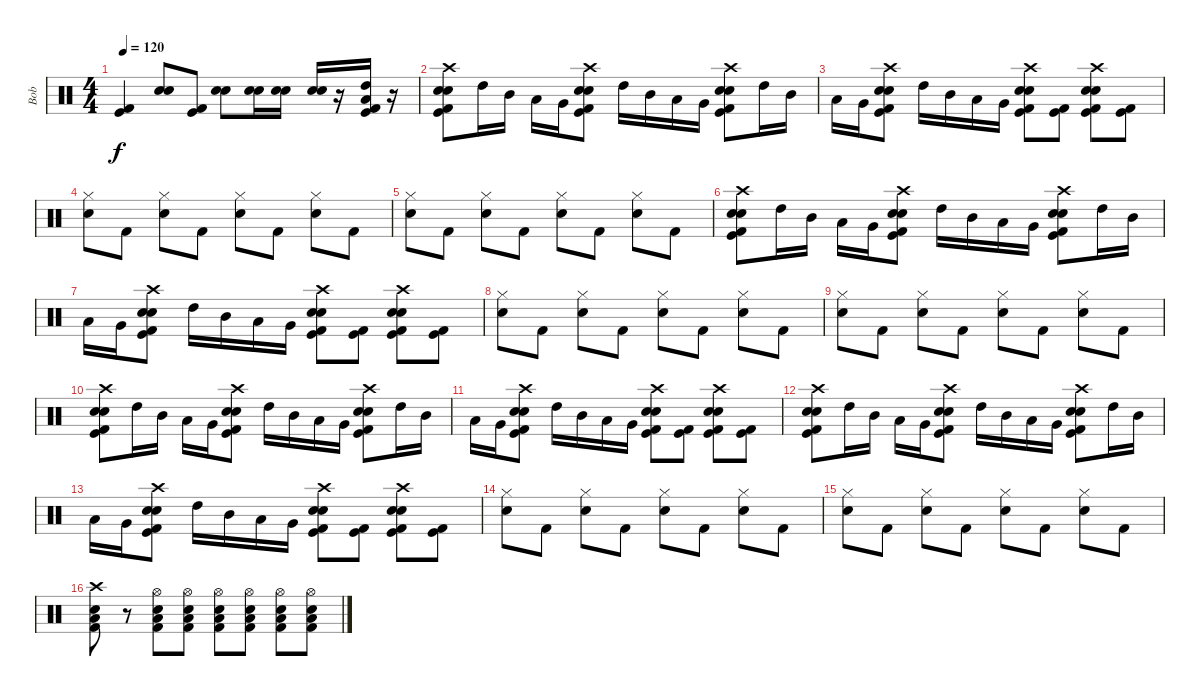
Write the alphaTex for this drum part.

\track ("Bob" "Bob") {instrument percussion}
\staff {score}
\articulation defaults
\ts (4 4)
\tempo 120
\clef neutral
\ks c
("Kick (hit)" "Kick (hit) 2").4{dy f} ("Electric Snare (hit)" "Snare (hit) 2").8 ("Kick (hit)" "Kick (hit) 2").8 ("Snare (hit) 2" "Snare (hit) 2").8 ("Electric Snare (hit)" "Snare (hit) 2").16 ("Electric Snare (hit)" "Snare (hit) 2").16 ("Electric Snare (hit)" "Snare (hit) 2").16 r.16 ("High Tom (hit)" "Low Tom (hit)" "Kick (hit)" "Kick (hit) 2").16 r.16 |
("Crash high (hit)" "Electric Snare (hit)" "Snare (hit) 2" "Kick (hit)" "Kick (hit) 2").8 "High Tom (hit)".16 "Mid Tom (hit)".16 "Low Tom (hit)".16 "Very Low Tom (hit)".16 ("Crash high (hit)" "Electric Snare (hit)" "Snare (hit) 2" "Kick (hit)" "Kick (hit) 2").8 "High Tom (hit)".16 "Mid Tom (hit)".16 "Low Tom (hit)".16 "Very Low Tom (hit)".16 ("Crash high (hit)" "Electric Snare (hit)" "Snare (hit) 2" "Kick (hit)" "Kick (hit) 2").8 "High Tom (hit)".16 "Mid Tom (hit)".16 |
"Low Tom (hit)".16 "Very Low Tom (hit)".16 ("Crash high (hit)" "Electric Snare (hit)" "Snare (hit) 2" "Kick (hit)" "Kick (hit) 2").8 "High Tom (hit)".16 "Mid Tom (hit)".16 "Low Tom (hit)".16 "Very Low Tom (hit)".16 ("Crash high (hit)" "Electric Snare (hit)" "Snare (hit) 2" "Kick (hit)" "Kick (hit) 2").8 ("Kick (hit)" "Kick (hit) 2").8 ("Crash high (hit)" "Electric Snare (hit)" "Snare (hit) 2" "Kick (hit)" "Kick (hit) 2").8 ("Kick (hit)" "Kick (hit) 2").8 |
("Hi-Hat (closed)" "Snare (hit) 2").8 "Kick (hit) 2".8 ("Hi-Hat (closed)" "Snare (hit) 2").8 "Kick (hit) 2".8 ("Hi-Hat (closed)" "Snare (hit) 2").8 "Kick (hit) 2".8 ("Hi-Hat (closed)" "Snare (hit) 2").8 "Kick (hit) 2".8 |
("Hi-Hat (closed)" "Snare (hit) 2").8 "Kick (hit) 2".8 ("Hi-Hat (closed)" "Snare (hit) 2").8 "Kick (hit) 2".8 ("Hi-Hat (closed)" "Snare (hit) 2").8 "Kick (hit) 2".8 ("Hi-Hat (closed)" "Snare (hit) 2").8 "Kick (hit) 2".8 |
("Crash high (hit)" "Electric Snare (hit)" "Snare (hit) 2" "Kick (hit)" "Kick (hit) 2").8 "High Tom (hit)".16 "Mid Tom (hit)".16 "Low Tom (hit)".16 "Very Low Tom (hit)".16 ("Crash high (hit)" "Electric Snare (hit)" "Snare (hit) 2" "Kick (hit)" "Kick (hit) 2").8 "High Tom (hit)".16 "Mid Tom (hit)".16 "Low Tom (hit)".16 "Very Low Tom (hit)".16 ("Crash high (hit)" "Electric Snare (hit)" "Snare (hit) 2" "Kick (hit)" "Kick (hit) 2").8 "High Tom (hit)".16 "Mid Tom (hit)".16 |
"Low Tom (hit)".16 "Very Low Tom (hit)".16 ("Crash high (hit)" "Electric Snare (hit)" "Snare (hit) 2" "Kick (hit)" "Kick (hit) 2").8 "High Tom (hit)".16 "Mid Tom (hit)".16 "Low Tom (hit)".16 "Very Low Tom (hit)".16 ("Crash high (hit)" "Electric Snare (hit)" "Snare (hit) 2" "Kick (hit)" "Kick (hit) 2").8 ("Kick (hit)" "Kick (hit) 2").8 ("Crash high (hit)" "Electric Snare (hit)" "Snare (hit) 2" "Kick (hit)" "Kick (hit) 2").8 ("Kick (hit)" "Kick (hit) 2").8 |
("Hi-Hat (closed)" "Snare (hit) 2").8 "Kick (hit) 2".8 ("Hi-Hat (closed)" "Snare (hit) 2").8 "Kick (hit) 2".8 ("Hi-Hat (closed)" "Snare (hit) 2").8 "Kick (hit) 2".8 ("Hi-Hat (closed)" "Snare (hit) 2").8 "Kick (hit) 2".8 |
("Hi-Hat (closed)" "Snare (hit) 2").8 "Kick (hit) 2".8 ("Hi-Hat (closed)" "Snare (hit) 2").8 "Kick (hit) 2".8 ("Hi-Hat (closed)" "Snare (hit) 2").8 "Kick (hit) 2".8 ("Hi-Hat (closed)" "Snare (hit) 2").8 "Kick (hit) 2".8 |
("Crash high (hit)" "Electric Snare (hit)" "Snare (hit) 2" "Kick (hit)" "Kick (hit) 2").8 "High Tom (hit)".16 "Mid Tom (hit)".16 "Low Tom (hit)".16 "Very Low Tom (hit)".16 ("Crash high (hit)" "Electric Snare (hit)" "Snare (hit) 2" "Kick (hit)" "Kick (hit) 2").8 "High Tom (hit)".16 "Mid Tom (hit)".16 "Low Tom (hit)".16 "Very Low Tom (hit)".16 ("Crash high (hit)" "Electric Snare (hit)" "Snare (hit) 2" "Kick (hit)" "Kick (hit) 2").8 "High Tom (hit)".16 "Mid Tom (hit)".16 |
"Low Tom (hit)".16 "Very Low Tom (hit)".16 ("Crash high (hit)" "Electric Snare (hit)" "Snare (hit) 2" "Kick (hit)" "Kick (hit) 2").8 "High Tom (hit)".16 "Mid Tom (hit)".16 "Low Tom (hit)".16 "Very Low Tom (hit)".16 ("Crash high (hit)" "Electric Snare (hit)" "Snare (hit) 2" "Kick (hit)" "Kick (hit) 2").8 ("Kick (hit)" "Kick (hit) 2").8 ("Crash high (hit)" "Electric Snare (hit)" "Snare (hit) 2" "Kick (hit)" "Kick (hit) 2").8 ("Kick (hit)" "Kick (hit) 2").8 |
("Crash high (hit)" "Electric Snare (hit)" "Snare (hit) 2" "Kick (hit)" "Kick (hit) 2").8 "High Tom (hit)".16 "Mid Tom (hit)".16 "Low Tom (hit)".16 "Very Low Tom (hit)".16 ("Crash high (hit)" "Electric Snare (hit)" "Snare (hit) 2" "Kick (hit)" "Kick (hit) 2").8 "High Tom (hit)".16 "Mid Tom (hit)".16 "Low Tom (hit)".16 "Very Low Tom (hit)".16 ("Crash high (hit)" "Electric Snare (hit)" "Snare (hit) 2" "Kick (hit)" "Kick (hit) 2").8 "High Tom (hit)".16 "Mid Tom (hit)".16 |
"Low Tom (hit)".16 "Very Low Tom (hit)".16 ("Crash high (hit)" "Electric Snare (hit)" "Snare (hit) 2" "Kick (hit)" "Kick (hit) 2").8 "High Tom (hit)".16 "Mid Tom (hit)".16 "Low Tom (hit)".16 "Very Low Tom (hit)".16 ("Crash high (hit)" "Electric Snare (hit)" "Snare (hit) 2" "Kick (hit)" "Kick (hit) 2").8 ("Kick (hit)" "Kick (hit) 2").8 ("Crash high (hit)" "Electric Snare (hit)" "Snare (hit) 2" "Kick (hit)" "Kick (hit) 2").8 ("Kick (hit)" "Kick (hit) 2").8 |
("Hi-Hat (closed)" "Snare (hit) 2").8 "Kick (hit) 2".8 ("Hi-Hat (closed)" "Snare (hit) 2").8 "Kick (hit) 2".8 ("Hi-Hat (closed)" "Snare (hit) 2").8 "Kick (hit) 2".8 ("Hi-Hat (closed)" "Snare (hit) 2").8 "Kick (hit) 2".8 |
("Hi-Hat (closed)" "Snare (hit) 2").8 "Kick (hit) 2".8 ("Hi-Hat (closed)" "Snare (hit) 2").8 "Kick (hit) 2".8 ("Hi-Hat (closed)" "Snare (hit) 2").8 "Kick (hit) 2".8 ("Hi-Hat (closed)" "Snare (hit) 2").8 "Kick (hit) 2".8 |
("Crash high (hit)" "Snare (hit) 2" "Low Tom (hit)" "Kick (hit) 2").8 r.8 ("Hi-Hat (open)" "Snare (hit) 2" "Low Tom (hit)" "Kick (hit) 2").8{volume 3} ("Hi-Hat (open)" "Snare (hit) 2" "Low Tom (hit)" "Kick (hit) 2").8{volume 4} ("Hi-Hat (open)" "Snare (hit) 2" "Low Tom (hit)" "Kick (hit) 2").8{volume 6} ("Hi-Hat (open)" "Snare (hit) 2" "Low Tom (hit)" "Kick (hit) 2").8{volume 7} ("Hi-Hat (open)" "Snare (hit) 2" "Low Tom (hit)" "Kick (hit) 2").8{volume 8} ("Hi-Hat (open)" "Snare (hit) 2" "Low Tom (hit)" "Kick (hit) 2").8{volume 9}
